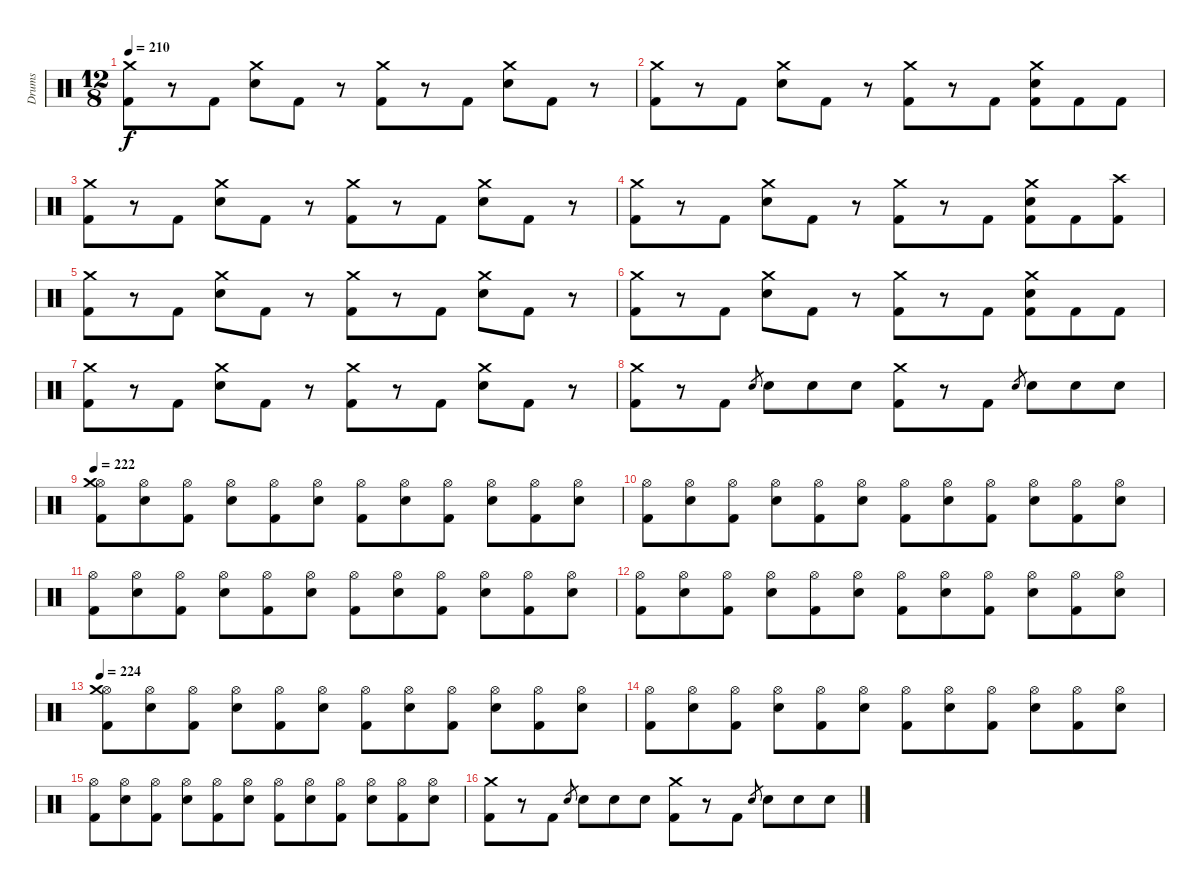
\track ("Drums" "Drums") {instrument percussion}
\staff {score}
\articulation defaults
\ts (12 8)
\tempo 210
\clef neutral
\ks c
("Crash medium (hit)" "Kick (hit) 2").8{dy f} r.8 "Kick (hit) 2".8 ("Crash medium (hit)" "Snare (hit) 2").8 "Kick (hit) 2".8 r.8 ("Crash medium (hit)" "Kick (hit) 2").8 r.8 "Kick (hit) 2".8 ("Crash medium (hit)" "Snare (hit) 2").8 "Kick (hit) 2".8 r.8 |
("Crash medium (hit)" "Kick (hit) 2").8 r.8 "Kick (hit) 2".8 ("Crash medium (hit)" "Snare (hit) 2").8 "Kick (hit) 2".8 r.8 ("Crash medium (hit)" "Kick (hit) 2").8 r.8 "Kick (hit) 2".8 ("Crash medium (hit)" "Snare (hit) 2" "Kick (hit) 2").8 "Kick (hit) 2".8 "Kick (hit) 2".8 |
("Crash medium (hit)" "Kick (hit) 2").8 r.8 "Kick (hit) 2".8 ("Crash medium (hit)" "Snare (hit) 2").8 "Kick (hit) 2".8 r.8 ("Crash medium (hit)" "Kick (hit) 2").8 r.8 "Kick (hit) 2".8 ("Crash medium (hit)" "Snare (hit) 2").8 "Kick (hit) 2".8 r.8 |
("Crash medium (hit)" "Kick (hit) 2").8 r.8 "Kick (hit) 2".8 ("Crash medium (hit)" "Snare (hit) 2").8 "Kick (hit) 2".8 r.8 ("Crash medium (hit)" "Kick (hit) 2").8 r.8 "Kick (hit) 2".8 ("Crash medium (hit)" "Snare (hit) 2" "Kick (hit) 2").8 "Kick (hit) 2".8 ("Crash high (hit)" "Kick (hit) 2").8 |
("Crash medium (hit)" "Kick (hit) 2").8 r.8 "Kick (hit) 2".8 ("Crash medium (hit)" "Snare (hit) 2").8 "Kick (hit) 2".8 r.8 ("Crash medium (hit)" "Kick (hit) 2").8 r.8 "Kick (hit) 2".8 ("Crash medium (hit)" "Snare (hit) 2").8 "Kick (hit) 2".8 r.8 |
("Crash medium (hit)" "Kick (hit) 2").8 r.8 "Kick (hit) 2".8 ("Crash medium (hit)" "Snare (hit) 2").8 "Kick (hit) 2".8 r.8 ("Crash medium (hit)" "Kick (hit) 2").8 r.8 "Kick (hit) 2".8 ("Crash medium (hit)" "Snare (hit) 2" "Kick (hit) 2").8 "Kick (hit) 2".8 "Kick (hit) 2".8 |
("Crash medium (hit)" "Kick (hit) 2").8 r.8 "Kick (hit) 2".8 ("Crash medium (hit)" "Snare (hit) 2").8 "Kick (hit) 2".8 r.8 ("Crash medium (hit)" "Kick (hit) 2").8 r.8 "Kick (hit) 2".8 ("Crash medium (hit)" "Snare (hit) 2").8 "Kick (hit) 2".8 r.8 |
("Crash medium (hit)" "Kick (hit) 2").8 r.8 "Kick (hit) 2".8 "Snare (hit) 2".8{gr} "Snare (hit) 2".8 "Snare (hit) 2".8 "Snare (hit) 2".8 ("Crash medium (hit)" "Kick (hit) 2").8 r.8 "Kick (hit) 2".8 "Snare (hit) 2".8{gr} "Snare (hit) 2".8 "Snare (hit) 2".8 "Snare (hit) 2".8 |
\tempo 222
("Hi-Hat (open)" "Crash medium (hit)" "Kick (hit) 2").8 ("Hi-Hat (open)" "Snare (hit) 2").8 ("Hi-Hat (open)" "Kick (hit) 2").8 ("Hi-Hat (open)" "Snare (hit) 2").8 ("Hi-Hat (open)" "Kick (hit) 2").8 ("Hi-Hat (open)" "Snare (hit) 2").8 ("Hi-Hat (open)" "Kick (hit) 2").8 ("Hi-Hat (open)" "Snare (hit) 2").8 ("Hi-Hat (open)" "Kick (hit) 2").8 ("Hi-Hat (open)" "Snare (hit) 2").8 ("Hi-Hat (open)" "Kick (hit) 2").8 ("Hi-Hat (open)" "Snare (hit) 2").8 |
("Hi-Hat (open)" "Kick (hit) 2").8 ("Hi-Hat (open)" "Snare (hit) 2").8 ("Hi-Hat (open)" "Kick (hit) 2").8 ("Hi-Hat (open)" "Snare (hit) 2").8 ("Hi-Hat (open)" "Kick (hit) 2").8 ("Hi-Hat (open)" "Snare (hit) 2").8 ("Hi-Hat (open)" "Kick (hit) 2").8 ("Hi-Hat (open)" "Snare (hit) 2").8 ("Hi-Hat (open)" "Kick (hit) 2").8 ("Hi-Hat (open)" "Snare (hit) 2").8 ("Hi-Hat (open)" "Kick (hit) 2").8 ("Hi-Hat (open)" "Snare (hit) 2").8 |
("Hi-Hat (open)" "Kick (hit) 2").8 ("Hi-Hat (open)" "Snare (hit) 2").8 ("Hi-Hat (open)" "Kick (hit) 2").8 ("Hi-Hat (open)" "Snare (hit) 2").8 ("Hi-Hat (open)" "Kick (hit) 2").8 ("Hi-Hat (open)" "Snare (hit) 2").8 ("Hi-Hat (open)" "Kick (hit) 2").8 ("Hi-Hat (open)" "Snare (hit) 2").8 ("Hi-Hat (open)" "Kick (hit) 2").8 ("Hi-Hat (open)" "Snare (hit) 2").8 ("Hi-Hat (open)" "Kick (hit) 2").8 ("Hi-Hat (open)" "Snare (hit) 2").8 |
("Hi-Hat (open)" "Kick (hit) 2").8 ("Hi-Hat (open)" "Snare (hit) 2").8 ("Hi-Hat (open)" "Kick (hit) 2").8 ("Hi-Hat (open)" "Snare (hit) 2").8 ("Hi-Hat (open)" "Kick (hit) 2").8 ("Hi-Hat (open)" "Snare (hit) 2").8 ("Hi-Hat (open)" "Kick (hit) 2").8 ("Hi-Hat (open)" "Snare (hit) 2").8 ("Hi-Hat (open)" "Kick (hit) 2").8 ("Hi-Hat (open)" "Snare (hit) 2").8 ("Hi-Hat (open)" "Kick (hit) 2").8 ("Hi-Hat (open)" "Snare (hit) 2").8 |
\tempo 224
("Hi-Hat (open)" "Crash medium (hit)" "Kick (hit) 2").8 ("Hi-Hat (open)" "Snare (hit) 2").8 ("Hi-Hat (open)" "Kick (hit) 2").8 ("Hi-Hat (open)" "Snare (hit) 2").8 ("Hi-Hat (open)" "Kick (hit) 2").8 ("Hi-Hat (open)" "Snare (hit) 2").8 ("Hi-Hat (open)" "Kick (hit) 2").8 ("Hi-Hat (open)" "Snare (hit) 2").8 ("Hi-Hat (open)" "Kick (hit) 2").8 ("Hi-Hat (open)" "Snare (hit) 2").8 ("Hi-Hat (open)" "Kick (hit) 2").8 ("Hi-Hat (open)" "Snare (hit) 2").8 |
("Hi-Hat (open)" "Kick (hit) 2").8 ("Hi-Hat (open)" "Snare (hit) 2").8 ("Hi-Hat (open)" "Kick (hit) 2").8 ("Hi-Hat (open)" "Snare (hit) 2").8 ("Hi-Hat (open)" "Kick (hit) 2").8 ("Hi-Hat (open)" "Snare (hit) 2").8 ("Hi-Hat (open)" "Kick (hit) 2").8 ("Hi-Hat (open)" "Snare (hit) 2").8 ("Hi-Hat (open)" "Kick (hit) 2").8 ("Hi-Hat (open)" "Snare (hit) 2").8 ("Hi-Hat (open)" "Kick (hit) 2").8 ("Hi-Hat (open)" "Snare (hit) 2").8 |
("Hi-Hat (open)" "Kick (hit) 2").8 ("Hi-Hat (open)" "Snare (hit) 2").8 ("Hi-Hat (open)" "Kick (hit) 2").8 ("Hi-Hat (open)" "Snare (hit) 2").8 ("Hi-Hat (open)" "Kick (hit) 2").8 ("Hi-Hat (open)" "Snare (hit) 2").8 ("Hi-Hat (open)" "Kick (hit) 2").8 ("Hi-Hat (open)" "Snare (hit) 2").8 ("Hi-Hat (open)" "Kick (hit) 2").8 ("Hi-Hat (open)" "Snare (hit) 2").8 ("Hi-Hat (open)" "Kick (hit) 2").8 ("Hi-Hat (open)" "Snare (hit) 2").8 |
("Crash medium (hit)" "Kick (hit) 2").8 r.8 "Kick (hit) 2".8 "Snare (hit) 2".8{gr} "Snare (hit) 2".8 "Snare (hit) 2".8 "Snare (hit) 2".8 ("Crash medium (hit)" "Kick (hit) 2").8 r.8 "Kick (hit) 2".8 "Snare (hit) 2".8{gr} "Snare (hit) 2".8 "Snare (hit) 2".8 "Snare (hit) 2".8
